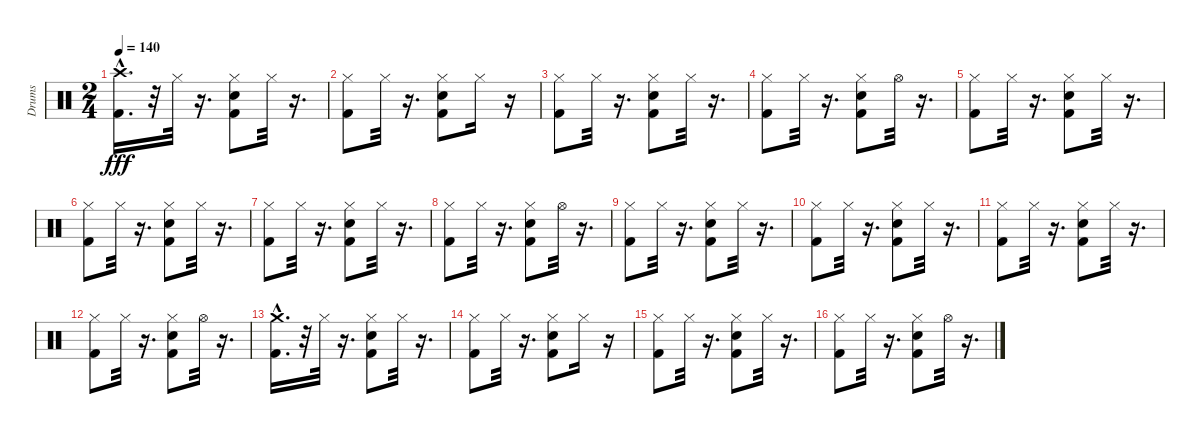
\track ("Drums" "Drums") {instrument percussion}
\staff {score}
\articulation defaults
\ts (2 4)
\tempo 140
\clef neutral
\ks c
("Kick (hit) 2"{hac} "Crash high (hit)").16{d dy fff} r.32 "Hi-Hat (closed)".32 r.16{d} ("Kick (hit) 2" "Snare (hit) 2" "Hi-Hat (closed)").8 "Hi-Hat (closed)".32 r.16{d} |
("Kick (hit) 2" "Hi-Hat (closed)").8 "Hi-Hat (closed)".32 r.16{d} ("Snare (hit) 2" "Kick (hit) 2" "Hi-Hat (closed)").8 "Hi-Hat (closed)".16 r.16 |
("Kick (hit) 2" "Hi-Hat (closed)").8 "Hi-Hat (closed)".32 r.16{d} ("Snare (hit) 2" "Kick (hit) 2" "Hi-Hat (closed)").8 "Hi-Hat (closed)".32 r.16{d} |
("Kick (hit) 2" "Hi-Hat (closed)").8 "Hi-Hat (closed)".32 r.16{d} ("Kick (hit) 2" "Snare (hit) 2" "Hi-Hat (closed)").8 "Hi-Hat (open)".32 r.16{d} |
("Kick (hit) 2" "Hi-Hat (closed)").8 "Hi-Hat (closed)".32 r.16{d} ("Snare (hit) 2" "Kick (hit) 2" "Hi-Hat (closed)").8 "Hi-Hat (closed)".32 r.16{d} |
("Kick (hit) 2" "Hi-Hat (closed)").8 "Hi-Hat (closed)".32 r.16{d} ("Snare (hit) 2" "Kick (hit) 2" "Hi-Hat (closed)").8 "Hi-Hat (closed)".32 r.16{d} |
("Kick (hit) 2" "Hi-Hat (closed)").8 "Hi-Hat (closed)".32 r.16{d} ("Hi-Hat (closed)" "Snare (hit) 2" "Kick (hit) 2").8 "Hi-Hat (closed)".32 r.16{d} |
("Kick (hit) 2" "Hi-Hat (closed)").8 "Hi-Hat (closed)".32 r.16{d} ("Kick (hit) 2" "Hi-Hat (closed)" "Snare (hit) 2").8 "Hi-Hat (open)".32 r.16{d} |
("Kick (hit) 2" "Hi-Hat (closed)").8 "Hi-Hat (closed)".32 r.16{d} ("Kick (hit) 2" "Hi-Hat (closed)" "Snare (hit) 2").8 "Hi-Hat (closed)".32 r.16{d} |
("Kick (hit) 2" "Hi-Hat (closed)").8 "Hi-Hat (closed)".32 r.16{d} ("Snare (hit) 2" "Kick (hit) 2" "Hi-Hat (closed)").8 "Hi-Hat (closed)".32 r.16{d} |
("Kick (hit) 2" "Hi-Hat (closed)").8 "Hi-Hat (closed)".32 r.16{d} ("Kick (hit) 2" "Hi-Hat (closed)" "Snare (hit) 2").8 "Hi-Hat (closed)".32 r.16{d} |
("Kick (hit) 2" "Hi-Hat (closed)").8 "Hi-Hat (closed)".32 r.16{d} ("Kick (hit) 2" "Hi-Hat (closed)" "Snare (hit) 2").8 "Hi-Hat (open)".32 r.16{d} |
("Kick (hit) 2"{hac} "Crash medium (hit)").16{d} r.32 "Hi-Hat (closed)".32 r.16{d} ("Kick (hit) 2" "Snare (hit) 2" "Hi-Hat (closed)").8 "Hi-Hat (closed)".32 r.16{d} |
("Kick (hit) 2" "Hi-Hat (closed)").8 "Hi-Hat (closed)".32 r.16{d} ("Hi-Hat (closed)" "Snare (hit) 2" "Kick (hit) 2").8 "Hi-Hat (closed)".16 r.16 |
("Kick (hit) 2" "Hi-Hat (closed)").8 "Hi-Hat (closed)".32 r.16{d} ("Snare (hit) 2" "Kick (hit) 2" "Hi-Hat (closed)").8 "Hi-Hat (closed)".32 r.16{d} |
("Kick (hit) 2" "Hi-Hat (closed)").8 "Hi-Hat (closed)".32 r.16{d} ("Kick (hit) 2" "Snare (hit) 2" "Hi-Hat (closed)").8 "Hi-Hat (open)".32 r.16{d}
